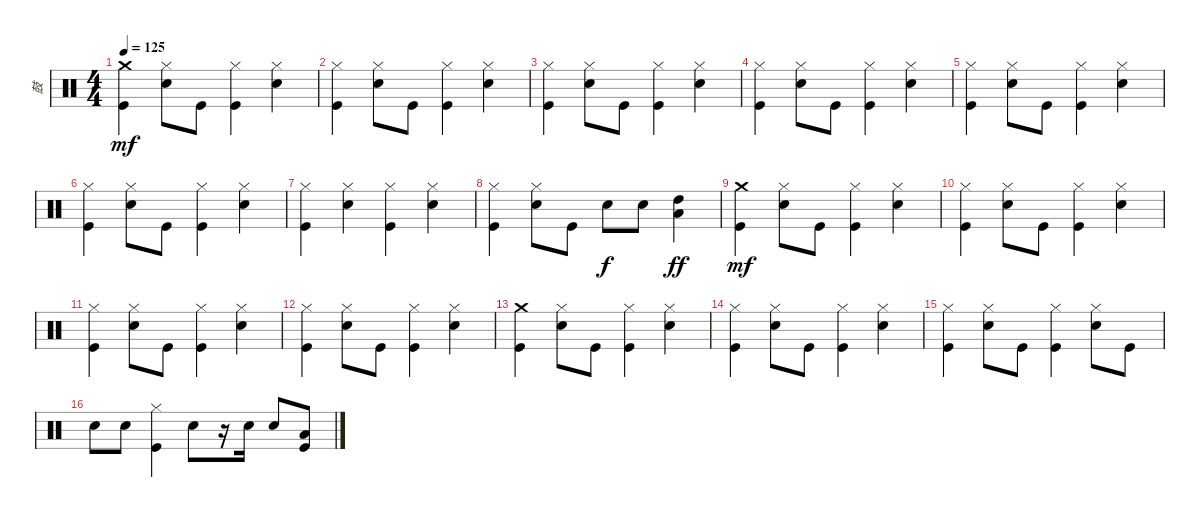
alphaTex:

\track ("鼓" "鼓") {instrument percussion}
\staff {score}
\articulation defaults
\ts (4 4)
\tempo 125
\clef neutral
\ks c
("Kick (hit)" "Crash medium (hit)").4{dy mf} ("Snare (hit) 2" "Hi-Hat (closed)").8 "Kick (hit)".8 ("Kick (hit)" "Hi-Hat (closed)").4 ("Snare (hit) 2" "Hi-Hat (closed)").4 |
("Kick (hit)" "Hi-Hat (closed)").4 ("Snare (hit) 2" "Hi-Hat (closed)").8 "Kick (hit)".8 ("Kick (hit)" "Hi-Hat (closed)").4 ("Snare (hit) 2" "Hi-Hat (closed)").4 |
("Kick (hit)" "Hi-Hat (closed)").4 ("Snare (hit) 2" "Hi-Hat (closed)").8 "Kick (hit)".8 ("Kick (hit)" "Hi-Hat (closed)").4 ("Snare (hit) 2" "Hi-Hat (closed)").4 |
("Kick (hit)" "Hi-Hat (closed)").4 ("Snare (hit) 2" "Hi-Hat (closed)").8 "Kick (hit)".8 ("Kick (hit)" "Hi-Hat (closed)").4 ("Snare (hit) 2" "Hi-Hat (closed)").4 |
("Kick (hit)" "Hi-Hat (closed)").4 ("Snare (hit) 2" "Hi-Hat (closed)").8 "Kick (hit)".8 ("Kick (hit)" "Hi-Hat (closed)").4 ("Snare (hit) 2" "Hi-Hat (closed)").4 |
("Kick (hit)" "Hi-Hat (closed)").4 ("Snare (hit) 2" "Hi-Hat (closed)").8 "Kick (hit)".8 ("Kick (hit)" "Hi-Hat (closed)").4 ("Snare (hit) 2" "Hi-Hat (closed)").4 |
("Kick (hit)" "Hi-Hat (closed)").4 ("Snare (hit) 2" "Hi-Hat (closed)").4 ("Kick (hit)" "Hi-Hat (closed)").4 ("Snare (hit) 2" "Hi-Hat (closed)").4 |
("Kick (hit)" "Hi-Hat (closed)").4 ("Snare (hit) 2" "Hi-Hat (closed)").8 "Kick (hit)".8 "Snare (hit) 2".8{dy f} "Snare (hit) 2".8 ("Low Tom (hit)" "High Tom (hit)").4{dy ff} |
("Kick (hit)" "Crash medium (hit)").4{dy mf} ("Snare (hit) 2" "Hi-Hat (closed)").8 "Kick (hit)".8 ("Kick (hit)" "Hi-Hat (closed)").4 ("Snare (hit) 2" "Hi-Hat (closed)").4 |
("Kick (hit)" "Hi-Hat (closed)").4 ("Snare (hit) 2" "Hi-Hat (closed)").8 "Kick (hit)".8 ("Kick (hit)" "Hi-Hat (closed)").4 ("Snare (hit) 2" "Hi-Hat (closed)").4 |
("Kick (hit)" "Hi-Hat (closed)").4 ("Snare (hit) 2" "Hi-Hat (closed)").8 "Kick (hit)".8 ("Kick (hit)" "Hi-Hat (closed)").4 ("Snare (hit) 2" "Hi-Hat (closed)").4 |
("Kick (hit)" "Hi-Hat (closed)").4 ("Snare (hit) 2" "Hi-Hat (closed)").8 "Kick (hit)".8 ("Kick (hit)" "Hi-Hat (closed)").4 ("Snare (hit) 2" "Hi-Hat (closed)").4 |
("Kick (hit)" "Crash medium (hit)").4 ("Snare (hit) 2" "Hi-Hat (closed)").8 "Kick (hit)".8 ("Kick (hit)" "Hi-Hat (closed)").4 ("Snare (hit) 2" "Hi-Hat (closed)").4 |
("Kick (hit)" "Hi-Hat (closed)").4 ("Snare (hit) 2" "Hi-Hat (closed)").8 "Kick (hit)".8 ("Kick (hit)" "Hi-Hat (closed)").4 ("Snare (hit) 2" "Hi-Hat (closed)").4 |
("Kick (hit)" "Hi-Hat (closed)").4 ("Snare (hit) 2" "Hi-Hat (closed)").8 "Kick (hit)".8 ("Kick (hit)" "Hi-Hat (closed)").4 ("Snare (hit) 2" "Hi-Hat (closed)").8 "Kick (hit)".8 |
"Snare (hit) 2".8 "Snare (hit) 2".8 ("Kick (hit)" "Hi-Hat (closed)").4 "Snare (hit) 2".8 r.16 "Snare (hit) 2".16 "Snare (hit) 2".8 ("Low Tom (hit)" "Kick (hit)").8
